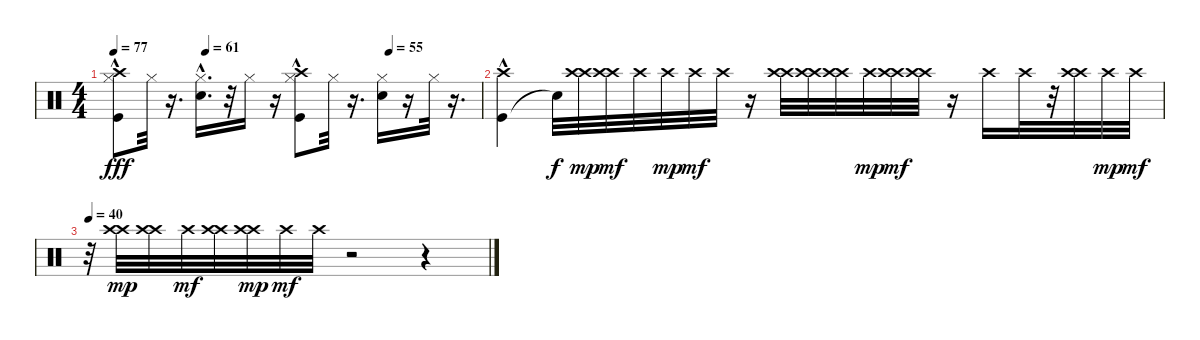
\track "" {instrument percussion}
\staff {score}
\articulation defaults
\ts (4 4)
\tempo 77
\tempo (61 0.25)
\tempo (55 0.75)
\clef neutral
\ks c
("Crash high (hit)" "Kick (hit)"{hac} "Hi-Hat (closed)").8{dy fff} "Hi-Hat (closed)".32 r.16{d} ("Snare (hit) 2"{hac} "Hi-Hat (closed)").16{d} r.32 "Hi-Hat (closed)".16 r.16 ("Kick (hit)"{hac} "Hi-Hat (closed)" "Crash high (hit)"{hac}).8 "Hi-Hat (closed)".32 r.16{d} ("Snare (hit) 2" "Hi-Hat (closed)").16 r.16 "Hi-Hat (closed)".32 r.16{d} |
("Kick (hit)" "Crash high (hit)"{hac}).4 "Snare (hit)"{t}.32{dy f} ("Crash high (hit)" "Crash high (hit)").32{dy mp} ("Crash high (hit)" "Crash high (hit)").32{dy mf} "Crash high (hit)".32 "Crash high (hit)".32{dy mp} "Crash high (hit)".32{dy mf} "Crash high (hit)".32 r.16 ("Crash high (hit)" "Crash high (hit)").32 ("Crash high (hit)" "Crash high (hit)").32 ("Crash high (hit)" "Crash high (hit)").32 "Crash high (hit)".32{dy mp} ("Crash high (hit)" "Crash high (hit)").32{dy mf} ("Crash high (hit)" "Crash high (hit)").32 r.16 "Crash high (hit)".16 "Crash high (hit)".32 r.32 ("Crash high (hit)" "Crash high (hit)").32 "Crash high (hit)".32{dy mp} "Crash high (hit)".32{dy mf} |
\tempo 40
r.32 ("Crash high (hit)" "Crash high (hit)").32{dy mp} ("Crash high (hit)" "Crash high (hit)").32 "Crash high (hit)".32{dy mf} ("Crash high (hit)" "Crash high (hit)").32 ("Crash high (hit)" "Crash high (hit)").32{dy mp} "Crash high (hit)".32{dy mf} "Crash high (hit)".32 r.2 r.4
